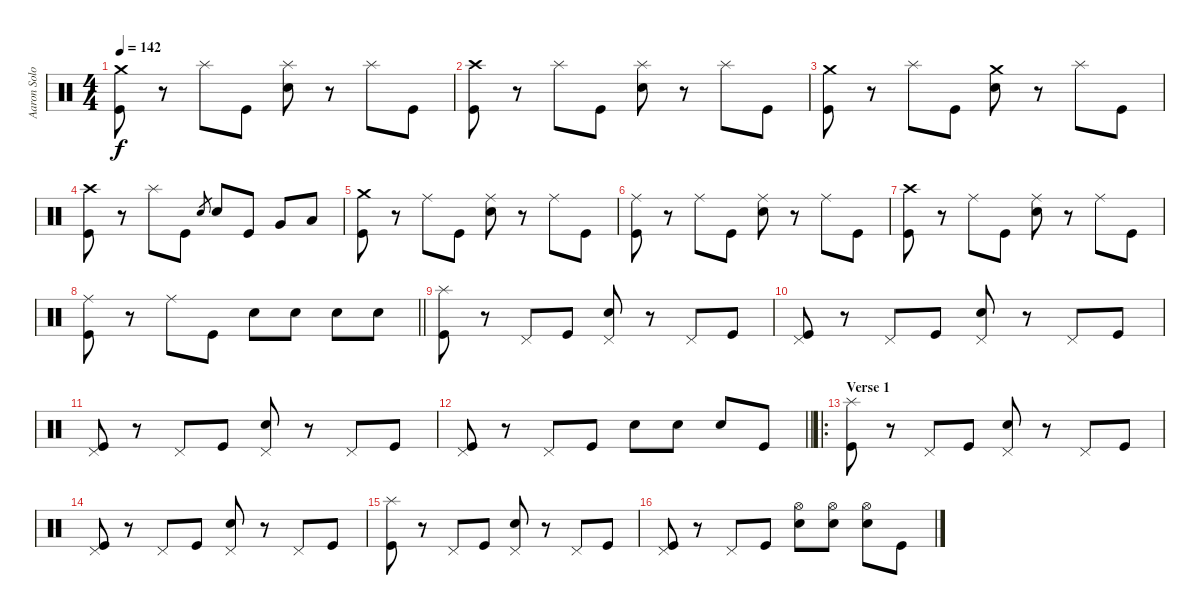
\track ("Aaron Solowoniuk" "Aaron Solo") {instrument percussion}
\staff {score}
\articulation defaults
\ts (4 4)
\section ("" "")
\tempo 142
\clef neutral
\ks c
("Crash medium (hit)" "Kick (hit)").8{dy f} r.8 "Splash (hit)".8 "Kick (hit)".8 ("Splash (hit)" "Electric Snare (hit)").8 r.8 "Splash (hit)".8 "Kick (hit)".8 |
("Crash high (hit)" "Kick (hit)").8 r.8 "Splash (hit)".8 "Kick (hit)".8 ("Splash (hit)" "Electric Snare (hit)").8 r.8 "Splash (hit)".8 "Kick (hit)".8 |
("Crash medium (hit)" "Kick (hit)").8 r.8 "Splash (hit)".8 "Kick (hit)".8 ("Crash medium (hit)" "Electric Snare (hit)").8 r.8 "Splash (hit)".8 "Kick (hit)".8 |
("Crash high (hit)" "Kick (hit)").8 r.8 "Splash (hit)".8 "Kick (hit)".8 "Electric Snare (hit)".8{gr} "Electric Snare (hit)".8 "Kick (hit)".8 "Very Low Tom (hit)".8 "Low Floor Tom (hit)".8 |
("Crash medium (hit)" "Kick (hit)").8 r.8 "Ride (middle)".8 "Kick (hit)".8 ("Ride (middle)" "Electric Snare (hit)").8 r.8 "Ride (middle)".8 "Kick (hit)".8 |
("Ride (middle)" "Kick (hit)").8 r.8 "Ride (middle)".8 "Kick (hit)".8 ("Ride (middle)" "Electric Snare (hit)").8 r.8 "Ride (middle)".8 "Kick (hit)".8 |
("Crash high (hit)" "Kick (hit)").8 r.8 "Ride (middle)".8 "Kick (hit)".8 ("Ride (middle)" "Electric Snare (hit)").8 r.8 "Ride (middle)".8 "Kick (hit)".8 |
\barLineRight lightlight
("Ride (middle)" "Kick (hit)").8 r.8 "Ride (middle)".8 "Kick (hit)".8 "Electric Snare (hit)".8 "Electric Snare (hit)".8 "Electric Snare (hit)".8 "Electric Snare (hit)".8 |
\section ("" "")
("Splash (hit)" "Kick (hit)").8 r.8 "Pedal Hi-Hat (hit)".8 "Kick (hit)".8 ("Pedal Hi-Hat (hit)" "Electric Snare (hit)").8 r.8 "Pedal Hi-Hat (hit)".8 "Kick (hit)".8 |
("Pedal Hi-Hat (hit)" "Kick (hit)").8 r.8 "Pedal Hi-Hat (hit)".8 "Kick (hit)".8 ("Pedal Hi-Hat (hit)" "Electric Snare (hit)").8 r.8 "Pedal Hi-Hat (hit)".8 "Kick (hit)".8 |
("Pedal Hi-Hat (hit)" "Kick (hit)").8 r.8 "Pedal Hi-Hat (hit)".8 "Kick (hit)".8 ("Pedal Hi-Hat (hit)" "Electric Snare (hit)").8 r.8 "Pedal Hi-Hat (hit)".8 "Kick (hit)".8 |
\barLineRight lightlight
("Pedal Hi-Hat (hit)" "Kick (hit)").8 r.8 "Pedal Hi-Hat (hit)".8 "Kick (hit)".8 "Electric Snare (hit)".8 "Electric Snare (hit)".8 "Electric Snare (hit)".8 "Kick (hit)".8 |
\ro
\section ("" "Verse 1")
("Splash (hit)" "Kick (hit)").8 r.8 "Pedal Hi-Hat (hit)".8 "Kick (hit)".8 ("Pedal Hi-Hat (hit)" "Electric Snare (hit)").8 r.8 "Pedal Hi-Hat (hit)".8 "Kick (hit)".8 |
("Pedal Hi-Hat (hit)" "Kick (hit)").8 r.8 "Pedal Hi-Hat (hit)".8 "Kick (hit)".8 ("Pedal Hi-Hat (hit)" "Electric Snare (hit)").8 r.8 "Pedal Hi-Hat (hit)".8 "Kick (hit)".8 |
("Splash (hit)" "Kick (hit)").8 r.8 "Pedal Hi-Hat (hit)".8 "Kick (hit)".8 ("Pedal Hi-Hat (hit)" "Electric Snare (hit)").8 r.8 "Pedal Hi-Hat (hit)".8 "Kick (hit)".8 |
("Pedal Hi-Hat (hit)" "Kick (hit)").8 r.8 "Pedal Hi-Hat (hit)".8 "Kick (hit)".8 ("Hi-Hat (open)" "Electric Snare (hit)").8 ("Hi-Hat (open)" "Electric Snare (hit)").8 ("Hi-Hat (open)" "Electric Snare (hit)").8 "Kick (hit)".8
